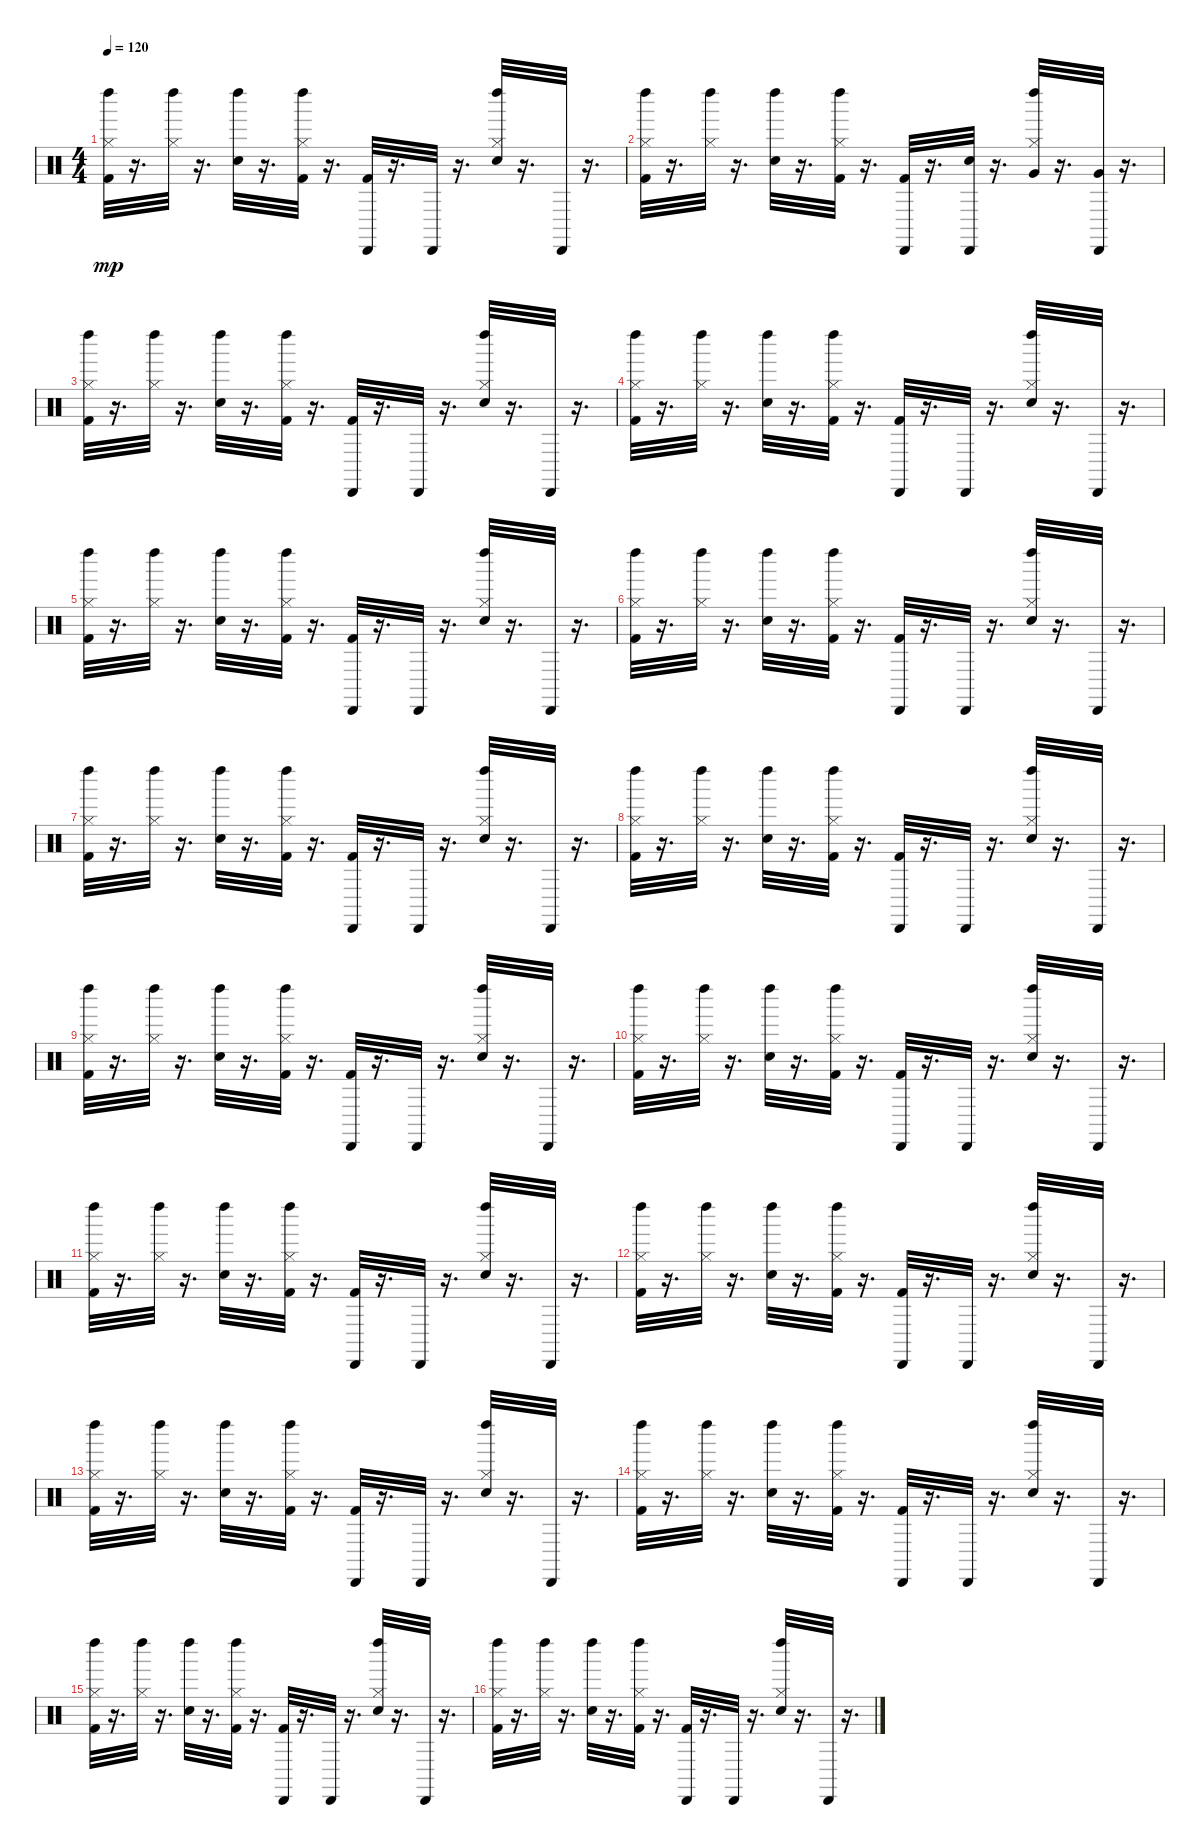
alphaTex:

\track "" {instrument percussion}
\staff {score}
\articulation defaults
\ts (4 4)
\tempo 120
\clef neutral
\ks c
("Left Maraca (hit)" "Hi-Hat (closed)" "Kick (hit) 2").32{dy mp} r.16{d} ("Left Maraca (hit)" "Hi-Hat (closed)").32 r.16{d} ("Left Maraca (hit)" "Electric Snare (hit)").32 r.16{d} ("Kick (hit) 2" "Left Maraca (hit)" "Hi-Hat (closed)").32 r.16{d} ("Kick (hit) 2" "Cabasa (hit)").32 r.16{d} "Cabasa (hit)".32 r.16{d} ("Hi-Hat (closed)" "Left Maraca (hit)" "Electric Snare (hit)").32 r.16{d} "Cabasa (hit)".32 r.16{d} |
("Left Maraca (hit)" "Hi-Hat (closed)" "Kick (hit) 2").32 r.16{d} ("Left Maraca (hit)" "Hi-Hat (closed)").32 r.16{d} ("Left Maraca (hit)" "Electric Snare (hit)").32 r.16{d} ("Kick (hit) 2" "Left Maraca (hit)" "Hi-Hat (closed)").32 r.16{d} ("Kick (hit) 2" "Cabasa (hit)").32 r.16{d} ("Cabasa (hit)" "Electric Snare (hit)").32 r.16{d} ("Very Low Tom (hit)" "Hi-Hat (closed)" "Left Maraca (hit)").32 r.16{d} ("Very Low Tom (hit)" "Cabasa (hit)").32 r.16{d} |
("Left Maraca (hit)" "Hi-Hat (closed)" "Kick (hit) 2").32 r.16{d} ("Left Maraca (hit)" "Hi-Hat (closed)").32 r.16{d} ("Left Maraca (hit)" "Electric Snare (hit)").32 r.16{d} ("Kick (hit) 2" "Left Maraca (hit)" "Hi-Hat (closed)").32 r.16{d} ("Kick (hit) 2" "Cabasa (hit)").32 r.16{d} "Cabasa (hit)".32 r.16{d} ("Hi-Hat (closed)" "Left Maraca (hit)" "Electric Snare (hit)").32 r.16{d} "Cabasa (hit)".32 r.16{d} |
("Left Maraca (hit)" "Hi-Hat (closed)" "Kick (hit) 2").32 r.16{d} ("Left Maraca (hit)" "Hi-Hat (closed)").32 r.16{d} ("Left Maraca (hit)" "Electric Snare (hit)").32 r.16{d} ("Kick (hit) 2" "Left Maraca (hit)" "Hi-Hat (closed)").32 r.16{d} ("Kick (hit) 2" "Cabasa (hit)").32 r.16{d} "Cabasa (hit)".32 r.16{d} ("Hi-Hat (closed)" "Left Maraca (hit)" "Electric Snare (hit)").32 r.16{d} "Cabasa (hit)".32 r.16{d} |
("Left Maraca (hit)" "Hi-Hat (closed)" "Kick (hit) 2").32 r.16{d} ("Left Maraca (hit)" "Hi-Hat (closed)").32 r.16{d} ("Left Maraca (hit)" "Electric Snare (hit)").32 r.16{d} ("Kick (hit) 2" "Left Maraca (hit)" "Hi-Hat (closed)").32 r.16{d} ("Kick (hit) 2" "Cabasa (hit)").32 r.16{d} "Cabasa (hit)".32 r.16{d} ("Hi-Hat (closed)" "Left Maraca (hit)" "Electric Snare (hit)").32 r.16{d} "Cabasa (hit)".32 r.16{d} |
("Left Maraca (hit)" "Hi-Hat (closed)" "Kick (hit) 2").32 r.16{d} ("Left Maraca (hit)" "Hi-Hat (closed)").32 r.16{d} ("Left Maraca (hit)" "Electric Snare (hit)").32 r.16{d} ("Kick (hit) 2" "Left Maraca (hit)" "Hi-Hat (closed)").32 r.16{d} ("Kick (hit) 2" "Cabasa (hit)").32 r.16{d} "Cabasa (hit)".32 r.16{d} ("Hi-Hat (closed)" "Left Maraca (hit)" "Electric Snare (hit)").32 r.16{d} "Cabasa (hit)".32 r.16{d} |
("Left Maraca (hit)" "Hi-Hat (closed)" "Kick (hit) 2").32 r.16{d} ("Left Maraca (hit)" "Hi-Hat (closed)").32 r.16{d} ("Left Maraca (hit)" "Electric Snare (hit)").32 r.16{d} ("Kick (hit) 2" "Left Maraca (hit)" "Hi-Hat (closed)").32 r.16{d} ("Kick (hit) 2" "Cabasa (hit)").32 r.16{d} "Cabasa (hit)".32 r.16{d} ("Hi-Hat (closed)" "Left Maraca (hit)" "Electric Snare (hit)").32 r.16{d} "Cabasa (hit)".32 r.16{d} |
("Left Maraca (hit)" "Hi-Hat (closed)" "Kick (hit) 2").32 r.16{d} ("Left Maraca (hit)" "Hi-Hat (closed)").32 r.16{d} ("Left Maraca (hit)" "Electric Snare (hit)").32 r.16{d} ("Kick (hit) 2" "Left Maraca (hit)" "Hi-Hat (closed)").32 r.16{d} ("Kick (hit) 2" "Cabasa (hit)").32 r.16{d} "Cabasa (hit)".32 r.16{d} ("Hi-Hat (closed)" "Left Maraca (hit)" "Electric Snare (hit)").32 r.16{d} "Cabasa (hit)".32 r.16{d} |
("Left Maraca (hit)" "Hi-Hat (closed)" "Kick (hit) 2").32 r.16{d} ("Left Maraca (hit)" "Hi-Hat (closed)").32 r.16{d} ("Left Maraca (hit)" "Electric Snare (hit)").32 r.16{d} ("Kick (hit) 2" "Left Maraca (hit)" "Hi-Hat (closed)").32 r.16{d} ("Kick (hit) 2" "Cabasa (hit)").32 r.16{d} "Cabasa (hit)".32 r.16{d} ("Hi-Hat (closed)" "Left Maraca (hit)" "Electric Snare (hit)").32 r.16{d} "Cabasa (hit)".32 r.16{d} |
("Left Maraca (hit)" "Hi-Hat (closed)" "Kick (hit) 2").32 r.16{d} ("Left Maraca (hit)" "Hi-Hat (closed)").32 r.16{d} ("Left Maraca (hit)" "Electric Snare (hit)").32 r.16{d} ("Kick (hit) 2" "Left Maraca (hit)" "Hi-Hat (closed)").32 r.16{d} ("Kick (hit) 2" "Cabasa (hit)").32 r.16{d} "Cabasa (hit)".32 r.16{d} ("Hi-Hat (closed)" "Left Maraca (hit)" "Electric Snare (hit)").32 r.16{d} "Cabasa (hit)".32 r.16{d} |
("Left Maraca (hit)" "Hi-Hat (closed)" "Kick (hit) 2").32 r.16{d} ("Left Maraca (hit)" "Hi-Hat (closed)").32 r.16{d} ("Left Maraca (hit)" "Electric Snare (hit)").32 r.16{d} ("Kick (hit) 2" "Left Maraca (hit)" "Hi-Hat (closed)").32 r.16{d} ("Kick (hit) 2" "Cabasa (hit)").32 r.16{d} "Cabasa (hit)".32 r.16{d} ("Hi-Hat (closed)" "Left Maraca (hit)" "Electric Snare (hit)").32 r.16{d} "Cabasa (hit)".32 r.16{d} |
("Left Maraca (hit)" "Hi-Hat (closed)" "Kick (hit) 2").32 r.16{d} ("Left Maraca (hit)" "Hi-Hat (closed)").32 r.16{d} ("Left Maraca (hit)" "Electric Snare (hit)").32 r.16{d} ("Kick (hit) 2" "Left Maraca (hit)" "Hi-Hat (closed)").32 r.16{d} ("Kick (hit) 2" "Cabasa (hit)").32 r.16{d} "Cabasa (hit)".32 r.16{d} ("Hi-Hat (closed)" "Left Maraca (hit)" "Electric Snare (hit)").32 r.16{d} "Cabasa (hit)".32 r.16{d} |
("Left Maraca (hit)" "Hi-Hat (closed)" "Kick (hit) 2").32 r.16{d} ("Left Maraca (hit)" "Hi-Hat (closed)").32 r.16{d} ("Left Maraca (hit)" "Electric Snare (hit)").32 r.16{d} ("Kick (hit) 2" "Left Maraca (hit)" "Hi-Hat (closed)").32 r.16{d} ("Kick (hit) 2" "Cabasa (hit)").32 r.16{d} "Cabasa (hit)".32 r.16{d} ("Hi-Hat (closed)" "Left Maraca (hit)" "Electric Snare (hit)").32 r.16{d} "Cabasa (hit)".32 r.16{d} |
("Left Maraca (hit)" "Hi-Hat (closed)" "Kick (hit) 2").32 r.16{d} ("Left Maraca (hit)" "Hi-Hat (closed)").32 r.16{d} ("Left Maraca (hit)" "Electric Snare (hit)").32 r.16{d} ("Kick (hit) 2" "Left Maraca (hit)" "Hi-Hat (closed)").32 r.16{d} ("Kick (hit) 2" "Cabasa (hit)").32 r.16{d} "Cabasa (hit)".32 r.16{d} ("Hi-Hat (closed)" "Left Maraca (hit)" "Electric Snare (hit)").32 r.16{d} "Cabasa (hit)".32 r.16{d} |
("Left Maraca (hit)" "Hi-Hat (closed)" "Kick (hit) 2").32 r.16{d} ("Left Maraca (hit)" "Hi-Hat (closed)").32 r.16{d} ("Left Maraca (hit)" "Electric Snare (hit)").32 r.16{d} ("Kick (hit) 2" "Left Maraca (hit)" "Hi-Hat (closed)").32 r.16{d} ("Kick (hit) 2" "Cabasa (hit)").32 r.16{d} "Cabasa (hit)".32 r.16{d} ("Hi-Hat (closed)" "Left Maraca (hit)" "Electric Snare (hit)").32 r.16{d} "Cabasa (hit)".32 r.16{d} |
("Left Maraca (hit)" "Hi-Hat (closed)" "Kick (hit) 2").32 r.16{d} ("Left Maraca (hit)" "Hi-Hat (closed)").32 r.16{d} ("Left Maraca (hit)" "Electric Snare (hit)").32 r.16{d} ("Kick (hit) 2" "Left Maraca (hit)" "Hi-Hat (closed)").32 r.16{d} ("Kick (hit) 2" "Cabasa (hit)").32 r.16{d} "Cabasa (hit)".32 r.16{d} ("Hi-Hat (closed)" "Left Maraca (hit)" "Electric Snare (hit)").32 r.16{d} "Cabasa (hit)".32 r.16{d}
